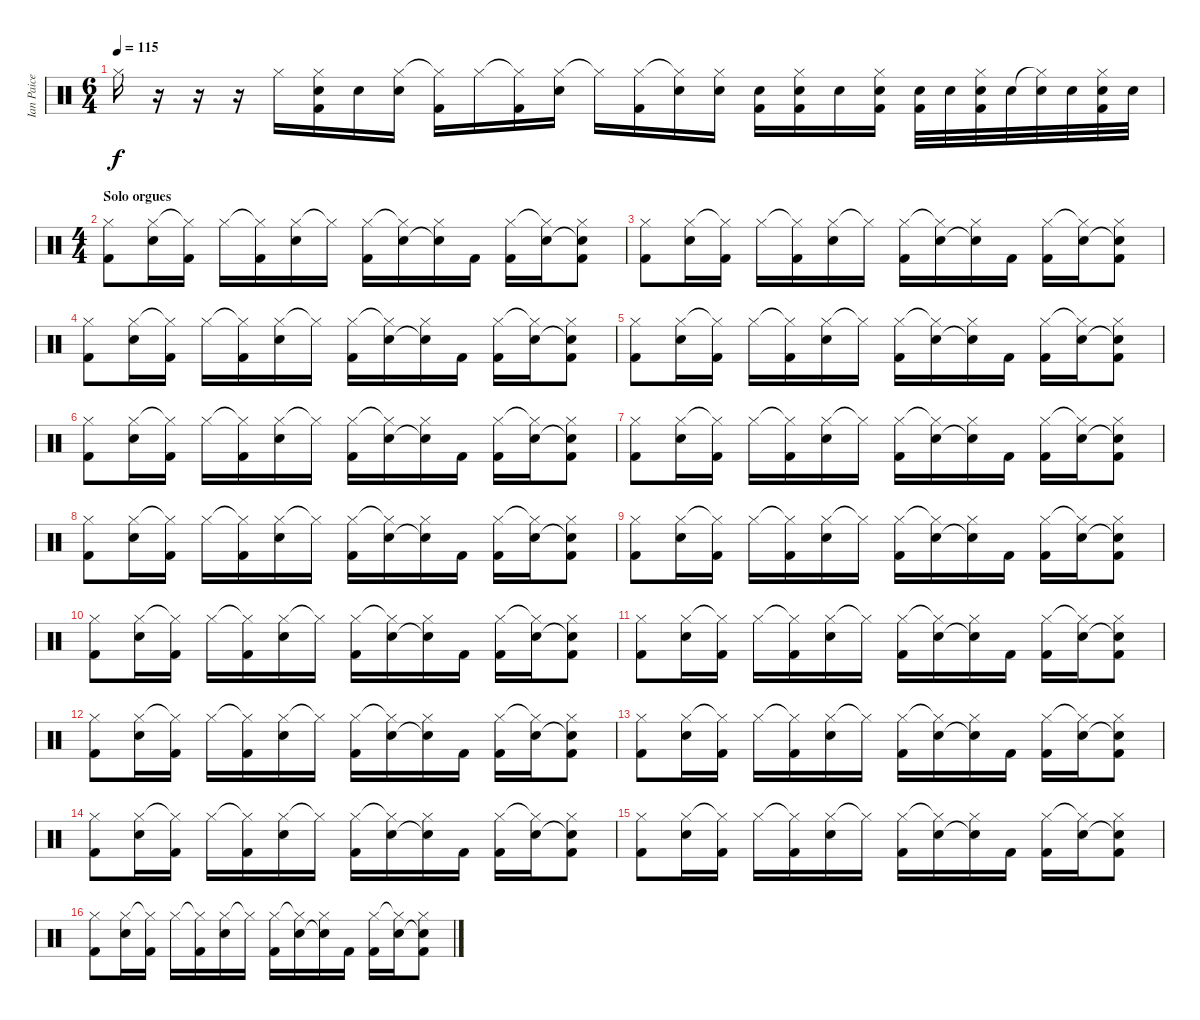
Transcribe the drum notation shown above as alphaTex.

\track ("Ian Paice" "Ian Paice") {instrument percussion}
\staff {score}
\articulation defaults
\ts (6 4)
\tempo 115
\clef neutral
\ks c "Hi-Hat (closed)".16{dy f}
r.16 r.16 r.16 "Hi-Hat (closed)".16 ("Hi-Hat (closed)" "Snare (hit) 2" "Kick (hit) 2").16 "Snare (hit) 2".16 ("Hi-Hat (closed)" "Snare (hit) 2").16 ("Hi-Hat (closed)"{t} "Kick (hit) 2").16 "Hi-Hat (closed)".16 ("Hi-Hat (closed)"{t} "Kick (hit) 2").16 ("Hi-Hat (closed)" "Snare (hit) 2").16 "Hi-Hat (closed)"{t}.16 ("Hi-Hat (closed)" "Kick (hit) 2").16 ("Hi-Hat (closed)"{t} "Snare (hit) 2").16 ("Hi-Hat (closed)" "Snare (hit) 2").16 ("Snare (hit) 2" "Kick (hit) 2").16 ("Hi-Hat (closed)" "Snare (hit) 2" "Kick (hit) 2").16 "Snare (hit) 2".16 ("Hi-Hat (closed)" "Snare (hit) 2" "Kick (hit) 2").16 ("Snare (hit) 2" "Kick (hit) 2").32 "Snare (hit) 2".32 ("Hi-Hat (closed)" "Snare (hit) 2" "Kick (hit) 2").32 "Snare (hit) 2".32 ("Hi-Hat (closed)"{t} "Snare (hit) 2").32 "Snare (hit) 2".32 ("Hi-Hat (closed)" "Snare (hit) 2" "Kick (hit) 2").32 "Snare (hit) 2".32 |
\ts (4 4)
\section ("" "Solo orgues")
("Hi-Hat (closed)" "Kick (hit) 2").8 ("Hi-Hat (closed)" "Snare (hit) 2").16 ("Hi-Hat (closed)"{t} "Kick (hit) 2").16 "Hi-Hat (closed)".16 ("Hi-Hat (closed)"{t} "Kick (hit) 2").16 ("Hi-Hat (closed)" "Snare (hit) 2").16 "Hi-Hat (closed)"{t}.16 ("Hi-Hat (closed)" "Kick (hit) 2").16 ("Hi-Hat (closed)"{t} "Snare (hit) 2").16 ("Hi-Hat (closed)" "Snare (hit) 2"{t}).16 "Kick (hit) 2".16 ("Hi-Hat (closed)" "Kick (hit) 2").16 ("Hi-Hat (closed)"{t} "Snare (hit) 2").16 ("Hi-Hat (closed)" "Snare (hit) 2"{t} "Kick (hit) 2").8 |
("Hi-Hat (closed)" "Kick (hit) 2").8 ("Hi-Hat (closed)" "Snare (hit) 2").16 ("Hi-Hat (closed)"{t} "Kick (hit) 2").16 "Hi-Hat (closed)".16 ("Hi-Hat (closed)"{t} "Kick (hit) 2").16 ("Hi-Hat (closed)" "Snare (hit) 2").16 "Hi-Hat (closed)"{t}.16 ("Hi-Hat (closed)" "Kick (hit) 2").16 ("Hi-Hat (closed)"{t} "Snare (hit) 2").16 ("Hi-Hat (closed)" "Snare (hit) 2"{t}).16 "Kick (hit) 2".16 ("Hi-Hat (closed)" "Kick (hit) 2").16 ("Hi-Hat (closed)"{t} "Snare (hit) 2").16 ("Hi-Hat (closed)" "Snare (hit) 2"{t} "Kick (hit) 2").8 |
("Hi-Hat (closed)" "Kick (hit) 2").8 ("Hi-Hat (closed)" "Snare (hit) 2").16 ("Hi-Hat (closed)"{t} "Kick (hit) 2").16 "Hi-Hat (closed)".16 ("Hi-Hat (closed)"{t} "Kick (hit) 2").16 ("Hi-Hat (closed)" "Snare (hit) 2").16 "Hi-Hat (closed)"{t}.16 ("Hi-Hat (closed)" "Kick (hit) 2").16 ("Hi-Hat (closed)"{t} "Snare (hit) 2").16 ("Hi-Hat (closed)" "Snare (hit) 2"{t}).16 "Kick (hit) 2".16 ("Hi-Hat (closed)" "Kick (hit) 2").16 ("Hi-Hat (closed)"{t} "Snare (hit) 2").16 ("Hi-Hat (closed)" "Snare (hit) 2"{t} "Kick (hit) 2").8 |
("Hi-Hat (closed)" "Kick (hit) 2").8 ("Hi-Hat (closed)" "Snare (hit) 2").16 ("Hi-Hat (closed)"{t} "Kick (hit) 2").16 "Hi-Hat (closed)".16 ("Hi-Hat (closed)"{t} "Kick (hit) 2").16 ("Hi-Hat (closed)" "Snare (hit) 2").16 "Hi-Hat (closed)"{t}.16 ("Hi-Hat (closed)" "Kick (hit) 2").16 ("Hi-Hat (closed)"{t} "Snare (hit) 2").16 ("Hi-Hat (closed)" "Snare (hit) 2"{t}).16 "Kick (hit) 2".16 ("Hi-Hat (closed)" "Kick (hit) 2").16 ("Hi-Hat (closed)"{t} "Snare (hit) 2").16 ("Hi-Hat (closed)" "Snare (hit) 2"{t} "Kick (hit) 2").8 |
("Hi-Hat (closed)" "Kick (hit) 2").8 ("Hi-Hat (closed)" "Snare (hit) 2").16 ("Hi-Hat (closed)"{t} "Kick (hit) 2").16 "Hi-Hat (closed)".16 ("Hi-Hat (closed)"{t} "Kick (hit) 2").16 ("Hi-Hat (closed)" "Snare (hit) 2").16 "Hi-Hat (closed)"{t}.16 ("Hi-Hat (closed)" "Kick (hit) 2").16 ("Hi-Hat (closed)"{t} "Snare (hit) 2").16 ("Hi-Hat (closed)" "Snare (hit) 2"{t}).16 "Kick (hit) 2".16 ("Hi-Hat (closed)" "Kick (hit) 2").16 ("Hi-Hat (closed)"{t} "Snare (hit) 2").16 ("Hi-Hat (closed)" "Snare (hit) 2"{t} "Kick (hit) 2").8 |
("Hi-Hat (closed)" "Kick (hit) 2").8 ("Hi-Hat (closed)" "Snare (hit) 2").16 ("Hi-Hat (closed)"{t} "Kick (hit) 2").16 "Hi-Hat (closed)".16 ("Hi-Hat (closed)"{t} "Kick (hit) 2").16 ("Hi-Hat (closed)" "Snare (hit) 2").16 "Hi-Hat (closed)"{t}.16 ("Hi-Hat (closed)" "Kick (hit) 2").16 ("Hi-Hat (closed)"{t} "Snare (hit) 2").16 ("Hi-Hat (closed)" "Snare (hit) 2"{t}).16 "Kick (hit) 2".16 ("Hi-Hat (closed)" "Kick (hit) 2").16 ("Hi-Hat (closed)"{t} "Snare (hit) 2").16 ("Hi-Hat (closed)" "Snare (hit) 2"{t} "Kick (hit) 2").8 |
("Hi-Hat (closed)" "Kick (hit) 2").8 ("Hi-Hat (closed)" "Snare (hit) 2").16 ("Hi-Hat (closed)"{t} "Kick (hit) 2").16 "Hi-Hat (closed)".16 ("Hi-Hat (closed)"{t} "Kick (hit) 2").16 ("Hi-Hat (closed)" "Snare (hit) 2").16 "Hi-Hat (closed)"{t}.16 ("Hi-Hat (closed)" "Kick (hit) 2").16 ("Hi-Hat (closed)"{t} "Snare (hit) 2").16 ("Hi-Hat (closed)" "Snare (hit) 2"{t}).16 "Kick (hit) 2".16 ("Hi-Hat (closed)" "Kick (hit) 2").16 ("Hi-Hat (closed)"{t} "Snare (hit) 2").16 ("Hi-Hat (closed)" "Snare (hit) 2"{t} "Kick (hit) 2").8 |
("Hi-Hat (closed)" "Kick (hit) 2").8 ("Hi-Hat (closed)" "Snare (hit) 2").16 ("Hi-Hat (closed)"{t} "Kick (hit) 2").16 "Hi-Hat (closed)".16 ("Hi-Hat (closed)"{t} "Kick (hit) 2").16 ("Hi-Hat (closed)" "Snare (hit) 2").16 "Hi-Hat (closed)"{t}.16 ("Hi-Hat (closed)" "Kick (hit) 2").16 ("Hi-Hat (closed)"{t} "Snare (hit) 2").16 ("Hi-Hat (closed)" "Snare (hit) 2"{t}).16 "Kick (hit) 2".16 ("Hi-Hat (closed)" "Kick (hit) 2").16 ("Hi-Hat (closed)"{t} "Snare (hit) 2").16 ("Hi-Hat (closed)" "Snare (hit) 2"{t} "Kick (hit) 2").8 |
("Hi-Hat (closed)" "Kick (hit) 2").8 ("Hi-Hat (closed)" "Snare (hit) 2").16 ("Hi-Hat (closed)"{t} "Kick (hit) 2").16 "Hi-Hat (closed)".16 ("Hi-Hat (closed)"{t} "Kick (hit) 2").16 ("Hi-Hat (closed)" "Snare (hit) 2").16 "Hi-Hat (closed)"{t}.16 ("Hi-Hat (closed)" "Kick (hit) 2").16 ("Hi-Hat (closed)"{t} "Snare (hit) 2").16 ("Hi-Hat (closed)" "Snare (hit) 2"{t}).16 "Kick (hit) 2".16 ("Hi-Hat (closed)" "Kick (hit) 2").16 ("Hi-Hat (closed)"{t} "Snare (hit) 2").16 ("Hi-Hat (closed)" "Snare (hit) 2"{t} "Kick (hit) 2").8 |
("Hi-Hat (closed)" "Kick (hit) 2").8 ("Hi-Hat (closed)" "Snare (hit) 2").16 ("Hi-Hat (closed)"{t} "Kick (hit) 2").16 "Hi-Hat (closed)".16 ("Hi-Hat (closed)"{t} "Kick (hit) 2").16 ("Hi-Hat (closed)" "Snare (hit) 2").16 "Hi-Hat (closed)"{t}.16 ("Hi-Hat (closed)" "Kick (hit) 2").16 ("Hi-Hat (closed)"{t} "Snare (hit) 2").16 ("Hi-Hat (closed)" "Snare (hit) 2"{t}).16 "Kick (hit) 2".16 ("Hi-Hat (closed)" "Kick (hit) 2").16 ("Hi-Hat (closed)"{t} "Snare (hit) 2").16 ("Hi-Hat (closed)" "Snare (hit) 2"{t} "Kick (hit) 2").8 |
("Hi-Hat (closed)" "Kick (hit) 2").8 ("Hi-Hat (closed)" "Snare (hit) 2").16 ("Hi-Hat (closed)"{t} "Kick (hit) 2").16 "Hi-Hat (closed)".16 ("Hi-Hat (closed)"{t} "Kick (hit) 2").16 ("Hi-Hat (closed)" "Snare (hit) 2").16 "Hi-Hat (closed)"{t}.16 ("Hi-Hat (closed)" "Kick (hit) 2").16 ("Hi-Hat (closed)"{t} "Snare (hit) 2").16 ("Hi-Hat (closed)" "Snare (hit) 2"{t}).16 "Kick (hit) 2".16 ("Hi-Hat (closed)" "Kick (hit) 2").16 ("Hi-Hat (closed)"{t} "Snare (hit) 2").16 ("Hi-Hat (closed)" "Snare (hit) 2"{t} "Kick (hit) 2").8 |
("Hi-Hat (closed)" "Kick (hit) 2").8 ("Hi-Hat (closed)" "Snare (hit) 2").16 ("Hi-Hat (closed)"{t} "Kick (hit) 2").16 "Hi-Hat (closed)".16 ("Hi-Hat (closed)"{t} "Kick (hit) 2").16 ("Hi-Hat (closed)" "Snare (hit) 2").16 "Hi-Hat (closed)"{t}.16 ("Hi-Hat (closed)" "Kick (hit) 2").16 ("Hi-Hat (closed)"{t} "Snare (hit) 2").16 ("Hi-Hat (closed)" "Snare (hit) 2"{t}).16 "Kick (hit) 2".16 ("Hi-Hat (closed)" "Kick (hit) 2").16 ("Hi-Hat (closed)"{t} "Snare (hit) 2").16 ("Hi-Hat (closed)" "Snare (hit) 2"{t} "Kick (hit) 2").8 |
("Hi-Hat (closed)" "Kick (hit) 2").8 ("Hi-Hat (closed)" "Snare (hit) 2").16 ("Hi-Hat (closed)"{t} "Kick (hit) 2").16 "Hi-Hat (closed)".16 ("Hi-Hat (closed)"{t} "Kick (hit) 2").16 ("Hi-Hat (closed)" "Snare (hit) 2").16 "Hi-Hat (closed)"{t}.16 ("Hi-Hat (closed)" "Kick (hit) 2").16 ("Hi-Hat (closed)"{t} "Snare (hit) 2").16 ("Hi-Hat (closed)" "Snare (hit) 2"{t}).16 "Kick (hit) 2".16 ("Hi-Hat (closed)" "Kick (hit) 2").16 ("Hi-Hat (closed)"{t} "Snare (hit) 2").16 ("Hi-Hat (closed)" "Snare (hit) 2"{t} "Kick (hit) 2").8 |
("Hi-Hat (closed)" "Kick (hit) 2").8 ("Hi-Hat (closed)" "Snare (hit) 2").16 ("Hi-Hat (closed)"{t} "Kick (hit) 2").16 "Hi-Hat (closed)".16 ("Hi-Hat (closed)"{t} "Kick (hit) 2").16 ("Hi-Hat (closed)" "Snare (hit) 2").16 "Hi-Hat (closed)"{t}.16 ("Hi-Hat (closed)" "Kick (hit) 2").16 ("Hi-Hat (closed)"{t} "Snare (hit) 2").16 ("Hi-Hat (closed)" "Snare (hit) 2"{t}).16 "Kick (hit) 2".16 ("Hi-Hat (closed)" "Kick (hit) 2").16 ("Hi-Hat (closed)"{t} "Snare (hit) 2").16 ("Hi-Hat (closed)" "Snare (hit) 2"{t} "Kick (hit) 2").8 |
("Hi-Hat (closed)" "Kick (hit) 2").8 ("Hi-Hat (closed)" "Snare (hit) 2").16 ("Hi-Hat (closed)"{t} "Kick (hit) 2").16 "Hi-Hat (closed)".16 ("Hi-Hat (closed)"{t} "Kick (hit) 2").16 ("Hi-Hat (closed)" "Snare (hit) 2").16 "Hi-Hat (closed)"{t}.16 ("Hi-Hat (closed)" "Kick (hit) 2").16 ("Hi-Hat (closed)"{t} "Snare (hit) 2").16 ("Hi-Hat (closed)" "Snare (hit) 2"{t}).16 "Kick (hit) 2".16 ("Hi-Hat (closed)" "Kick (hit) 2").16 ("Hi-Hat (closed)"{t} "Snare (hit) 2").16 ("Hi-Hat (closed)" "Snare (hit) 2"{t} "Kick (hit) 2").8
